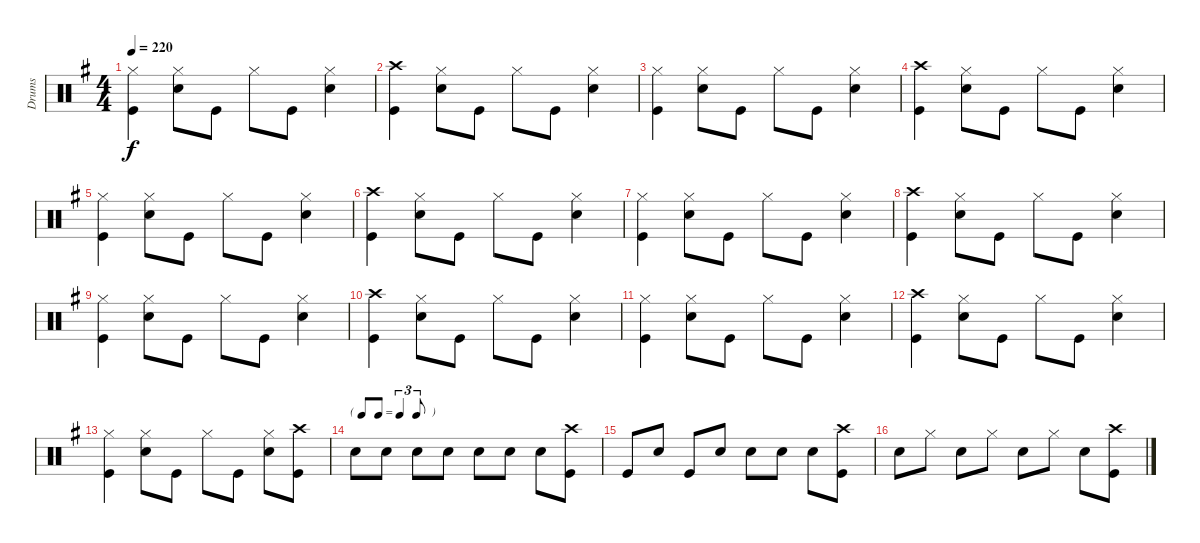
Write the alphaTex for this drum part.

\track ("Drums" "Drums") {instrument percussion}
\staff {score}
\articulation defaults
\ts (4 4)
\tempo 220
\clef neutral
\ks g
("Hi-Hat (closed)" "Kick (hit)").4{dy f} ("Hi-Hat (closed)" "Snare (hit) 2").8 "Kick (hit)".8 "Hi-Hat (closed)".8 "Kick (hit)".8 ("Hi-Hat (closed)" "Snare (hit) 2").4 |
("Crash high (hit)" "Kick (hit)").4 ("Hi-Hat (closed)" "Snare (hit) 2").8 "Kick (hit)".8 "Hi-Hat (closed)".8 "Kick (hit)".8 ("Hi-Hat (closed)" "Snare (hit) 2").4 |
("Hi-Hat (closed)" "Kick (hit)").4 ("Hi-Hat (closed)" "Snare (hit) 2").8 "Kick (hit)".8 "Hi-Hat (closed)".8 "Kick (hit)".8 ("Hi-Hat (closed)" "Snare (hit) 2").4 |
("Crash high (hit)" "Kick (hit)").4 ("Hi-Hat (closed)" "Snare (hit) 2").8 "Kick (hit)".8 "Hi-Hat (closed)".8 "Kick (hit)".8 ("Hi-Hat (closed)" "Snare (hit) 2").4 |
("Hi-Hat (closed)" "Kick (hit)").4 ("Hi-Hat (closed)" "Snare (hit) 2").8 "Kick (hit)".8 "Hi-Hat (closed)".8 "Kick (hit)".8 ("Hi-Hat (closed)" "Snare (hit) 2").4 |
("Crash high (hit)" "Kick (hit)").4 ("Hi-Hat (closed)" "Snare (hit) 2").8 "Kick (hit)".8 "Hi-Hat (closed)".8 "Kick (hit)".8 ("Hi-Hat (closed)" "Snare (hit) 2").4 |
("Hi-Hat (closed)" "Kick (hit)").4 ("Hi-Hat (closed)" "Snare (hit) 2").8 "Kick (hit)".8 "Hi-Hat (closed)".8 "Kick (hit)".8 ("Hi-Hat (closed)" "Snare (hit) 2").4 |
("Crash high (hit)" "Kick (hit)").4 ("Hi-Hat (closed)" "Snare (hit) 2").8 "Kick (hit)".8 "Hi-Hat (closed)".8 "Kick (hit)".8 ("Hi-Hat (closed)" "Snare (hit) 2").4 |
("Hi-Hat (closed)" "Kick (hit)").4 ("Hi-Hat (closed)" "Snare (hit) 2").8 "Kick (hit)".8 "Hi-Hat (closed)".8 "Kick (hit)".8 ("Hi-Hat (closed)" "Snare (hit) 2").4 |
("Crash high (hit)" "Kick (hit)").4 ("Hi-Hat (closed)" "Snare (hit) 2").8 "Kick (hit)".8 "Hi-Hat (closed)".8 "Kick (hit)".8 ("Hi-Hat (closed)" "Snare (hit) 2").4 |
("Hi-Hat (closed)" "Kick (hit)").4 ("Hi-Hat (closed)" "Snare (hit) 2").8 "Kick (hit)".8 "Hi-Hat (closed)".8 "Kick (hit)".8 ("Hi-Hat (closed)" "Snare (hit) 2").4 |
("Crash high (hit)" "Kick (hit)").4 ("Hi-Hat (closed)" "Snare (hit) 2").8 "Kick (hit)".8 "Hi-Hat (closed)".8 "Kick (hit)".8 ("Hi-Hat (closed)" "Snare (hit) 2").4 |
("Hi-Hat (closed)" "Kick (hit)").4 ("Hi-Hat (closed)" "Snare (hit) 2").8 "Kick (hit)".8 "Hi-Hat (closed)".8 "Kick (hit)".8 ("Hi-Hat (closed)" "Snare (hit) 2").8 ("Crash high (hit)" "Kick (hit)").8 |
\tf triplet8th "Snare (hit) 2".8 "Snare (hit) 2".8 "Snare (hit) 2".8 "Snare (hit) 2".8 "Snare (hit) 2".8 "Snare (hit) 2".8 "Snare (hit) 2".8
("Crash high (hit)" "Kick (hit)").8 |
"Kick (hit)".8 "Snare (hit) 2".8 "Kick (hit)".8 "Snare (hit) 2".8 "Snare (hit) 2".8 "Snare (hit) 2".8 "Snare (hit) 2".8 ("Crash high (hit)" "Kick (hit)").8 |
"Snare (hit) 2".8 "Hi-Hat (closed)".8 "Snare (hit) 2".8 "Hi-Hat (closed)".8 "Snare (hit) 2".8 "Hi-Hat (closed)".8 "Snare (hit) 2".8 ("Crash high (hit)" "Kick (hit)").8
